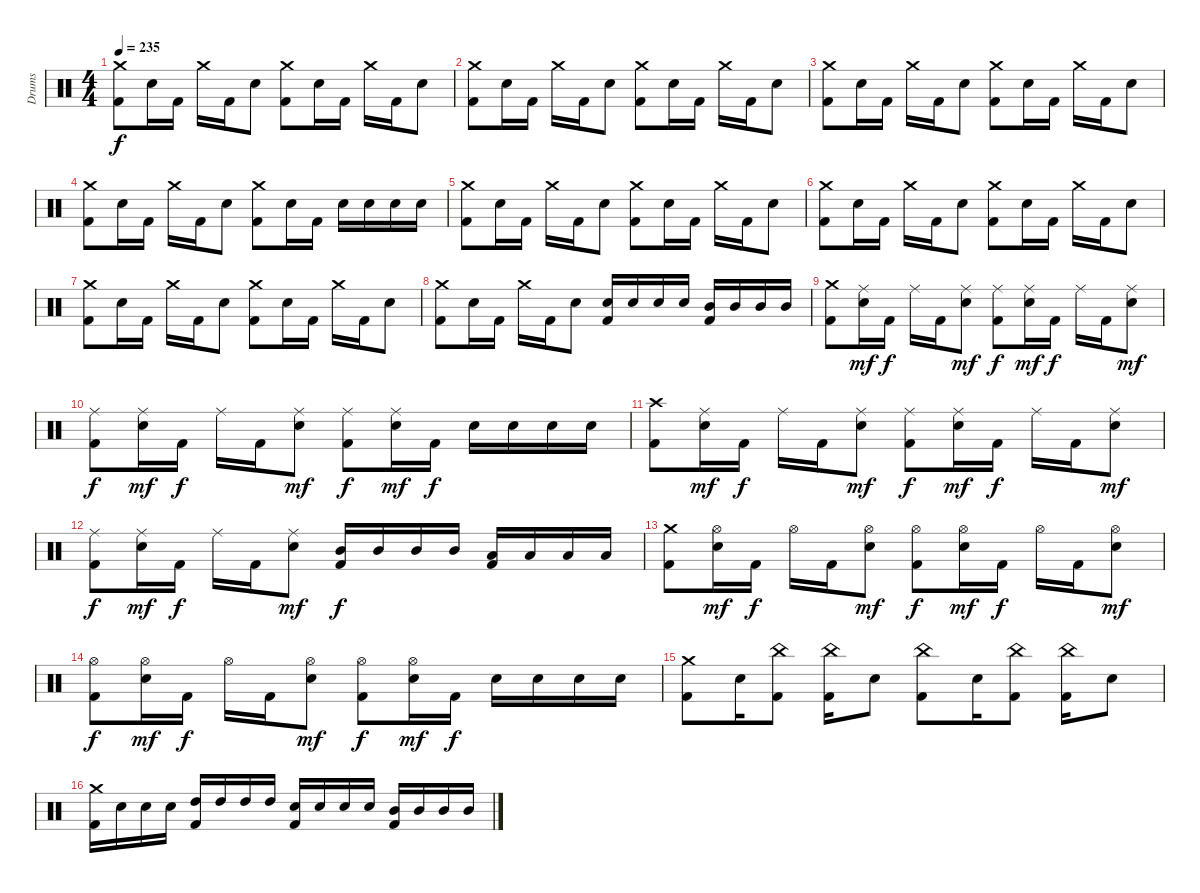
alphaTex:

\track ("Drums" "Drums") {instrument percussion}
\staff {score}
\articulation defaults
\ts (4 4)
\tempo 235
\clef neutral
\ks c
("Crash medium (hit)" "Kick (hit) 2").8{dy f} "Electric Snare (hit)".16 "Kick (hit) 2".16 "Crash medium (hit)".16 "Kick (hit) 2".16 "Electric Snare (hit)".8 ("Crash medium (hit)" "Kick (hit) 2").8 "Electric Snare (hit)".16 "Kick (hit) 2".16 "Crash medium (hit)".16 "Kick (hit) 2".16 "Electric Snare (hit)".8 |
("Crash medium (hit)" "Kick (hit) 2").8 "Electric Snare (hit)".16 "Kick (hit) 2".16 "Crash medium (hit)".16 "Kick (hit) 2".16 "Electric Snare (hit)".8 ("Crash medium (hit)" "Kick (hit) 2").8 "Electric Snare (hit)".16 "Kick (hit) 2".16 "Crash medium (hit)".16 "Kick (hit) 2".16 "Electric Snare (hit)".8 |
("Crash medium (hit)" "Kick (hit) 2").8 "Electric Snare (hit)".16 "Kick (hit) 2".16 "Crash medium (hit)".16 "Kick (hit) 2".16 "Electric Snare (hit)".8 ("Crash medium (hit)" "Kick (hit) 2").8 "Electric Snare (hit)".16 "Kick (hit) 2".16 "Crash medium (hit)".16 "Kick (hit) 2".16 "Electric Snare (hit)".8 |
("Crash medium (hit)" "Kick (hit) 2").8 "Electric Snare (hit)".16 "Kick (hit) 2".16 "Crash medium (hit)".16 "Kick (hit) 2".16 "Electric Snare (hit)".8 ("Crash medium (hit)" "Kick (hit) 2").8 "Electric Snare (hit)".16 "Kick (hit) 2".16 "Electric Snare (hit)".16 "Electric Snare (hit)".16 "Electric Snare (hit)".16 "Electric Snare (hit)".16 |
("Crash medium (hit)" "Kick (hit) 2").8 "Electric Snare (hit)".16 "Kick (hit) 2".16 "Crash medium (hit)".16 "Kick (hit) 2".16 "Electric Snare (hit)".8 ("Crash medium (hit)" "Kick (hit) 2").8 "Electric Snare (hit)".16 "Kick (hit) 2".16 "Crash medium (hit)".16 "Kick (hit) 2".16 "Electric Snare (hit)".8 |
("Crash medium (hit)" "Kick (hit) 2").8 "Electric Snare (hit)".16 "Kick (hit) 2".16 "Crash medium (hit)".16 "Kick (hit) 2".16 "Electric Snare (hit)".8 ("Crash medium (hit)" "Kick (hit) 2").8 "Electric Snare (hit)".16 "Kick (hit) 2".16 "Crash medium (hit)".16 "Kick (hit) 2".16 "Electric Snare (hit)".8 |
("Crash medium (hit)" "Kick (hit) 2").8 "Electric Snare (hit)".16 "Kick (hit) 2".16 "Crash medium (hit)".16 "Kick (hit) 2".16 "Electric Snare (hit)".8 ("Crash medium (hit)" "Kick (hit) 2").8 "Electric Snare (hit)".16 "Kick (hit) 2".16 "Crash medium (hit)".16 "Kick (hit) 2".16 "Electric Snare (hit)".8 |
("Crash medium (hit)" "Kick (hit) 2").8 "Electric Snare (hit)".16 "Kick (hit) 2".16 "Crash medium (hit)".16 "Kick (hit) 2".16 "Electric Snare (hit)".8 ("Electric Snare (hit)" "Kick (hit) 2").16 "Electric Snare (hit)".16 "Electric Snare (hit)".16 "Electric Snare (hit)".16 ("Mid Tom (hit)" "Kick (hit) 2").16 "Mid Tom (hit)".16 "Mid Tom (hit)".16 "Mid Tom (hit)".16 |
("Crash medium (hit)" "Kick (hit) 2").8 ("Ride (middle)" "Electric Snare (hit)").16{dy mf} "Kick (hit) 2".16{dy f} "Ride (middle)".16 "Kick (hit) 2".16 ("Ride (middle)" "Electric Snare (hit)").8{dy mf} ("Ride (middle)" "Kick (hit) 2").8{dy f} ("Ride (middle)" "Electric Snare (hit)").16{dy mf} "Kick (hit) 2".16{dy f} "Ride (middle)".16 "Kick (hit) 2".16 ("Ride (middle)" "Electric Snare (hit)").8{dy mf} |
("Ride (middle)" "Kick (hit) 2").8{dy f} ("Ride (middle)" "Electric Snare (hit)").16{dy mf} "Kick (hit) 2".16{dy f} "Ride (middle)".16 "Kick (hit) 2".16 ("Ride (middle)" "Electric Snare (hit)").8{dy mf} ("Ride (middle)" "Kick (hit) 2").8{dy f} ("Ride (middle)" "Electric Snare (hit)").16{dy mf} "Kick (hit) 2".16{dy f} "Electric Snare (hit)".16 "Electric Snare (hit)".16 "Electric Snare (hit)".16 "Electric Snare (hit)".16 |
("Crash high (hit)" "Kick (hit) 2").8 ("Ride (middle)" "Electric Snare (hit)").16{dy mf} "Kick (hit) 2".16{dy f} "Ride (middle)".16 "Kick (hit) 2".16 ("Ride (middle)" "Electric Snare (hit)").8{dy mf} ("Ride (middle)" "Kick (hit) 2").8{dy f} ("Ride (middle)" "Electric Snare (hit)").16{dy mf} "Kick (hit) 2".16{dy f} "Ride (middle)".16 "Kick (hit) 2".16 ("Ride (middle)" "Electric Snare (hit)").8{dy mf} |
("Ride (middle)" "Kick (hit) 2").8{dy f} ("Ride (middle)" "Electric Snare (hit)").16{dy mf} "Kick (hit) 2".16{dy f} "Ride (middle)".16 "Kick (hit) 2".16 ("Ride (middle)" "Electric Snare (hit)").8{dy mf} ("Mid Tom (hit)" "Kick (hit) 2").16{dy f} "Mid Tom (hit)".16 "Mid Tom (hit)".16 "Mid Tom (hit)".16 ("Low Tom (hit)" "Kick (hit) 2").16 "Low Tom (hit)".16 "Low Tom (hit)".16 "Low Tom (hit)".16 |
("Crash medium (hit)" "Kick (hit) 2").8 ("Hi-Hat (open)" "Electric Snare (hit)").16{dy mf} "Kick (hit) 2".16{dy f} "Hi-Hat (open)".16 "Kick (hit) 2".16 ("Hi-Hat (open)" "Electric Snare (hit)").8{dy mf} ("Hi-Hat (open)" "Kick (hit) 2").8{dy f} ("Hi-Hat (open)" "Electric Snare (hit)").16{dy mf} "Kick (hit) 2".16{dy f} "Hi-Hat (open)".16 "Kick (hit) 2".16 ("Hi-Hat (open)" "Electric Snare (hit)").8{dy mf} |
("Hi-Hat (open)" "Kick (hit) 2").8{dy f} ("Hi-Hat (open)" "Electric Snare (hit)").16{dy mf} "Kick (hit) 2".16{dy f} "Hi-Hat (open)".16 "Kick (hit) 2".16 ("Hi-Hat (open)" "Electric Snare (hit)").8{dy mf} ("Hi-Hat (open)" "Kick (hit) 2").8{dy f} ("Hi-Hat (open)" "Electric Snare (hit)").16{dy mf} "Kick (hit) 2".16{dy f} "Electric Snare (hit)".16 "Electric Snare (hit)".16 "Electric Snare (hit)".16 "Electric Snare (hit)".16 |
("Crash medium (hit)" "Kick (hit) 2").8 "Electric Snare (hit)".16 ("China (hit)" "Kick (hit) 2").8 ("China (hit)" "Kick (hit) 2").16 "Electric Snare (hit)".8 ("China (hit)" "Kick (hit) 2").8 "Electric Snare (hit)".16 ("China (hit)" "Kick (hit) 2").8 ("China (hit)" "Kick (hit) 2").16 "Electric Snare (hit)".8 |
("Crash medium (hit)" "Kick (hit) 2").16 "Electric Snare (hit)".16 "Electric Snare (hit)".16 "Electric Snare (hit)".16 ("High Tom (hit)" "Kick (hit) 2").16 "High Tom (hit)".16 "High Tom (hit)".16 "High Tom (hit)".16 ("Electric Snare (hit)" "Kick (hit) 2").16 "Electric Snare (hit)".16 "Electric Snare (hit)".16 "Electric Snare (hit)".16 ("Mid Tom (hit)" "Kick (hit) 2").16 "Mid Tom (hit)".16 "Mid Tom (hit)".16 "Mid Tom (hit)".16
